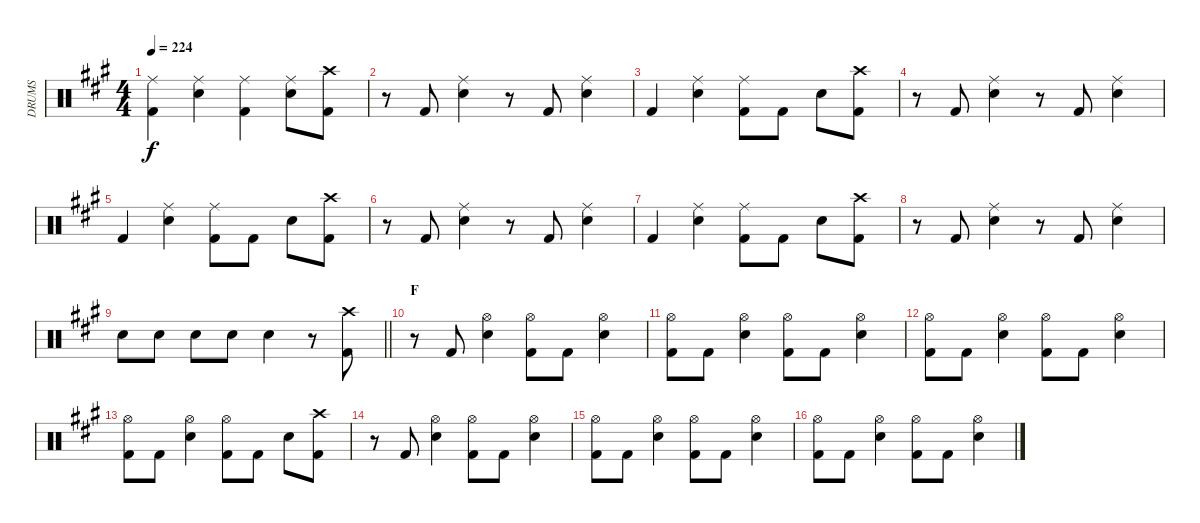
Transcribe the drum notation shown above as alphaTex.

\track ("DRUMS" "DRUMS") {instrument percussion}
\staff {score}
\articulation defaults
\ts (4 4)
\tempo 224
\clef neutral
\ks a
("Ride (middle)" "Kick (hit) 2").4{dy f} ("Ride (middle)" "Snare (hit) 2").4 ("Ride (middle)" "Kick (hit) 2").4 ("Ride (middle)" "Snare (hit) 2").8 ("Crash high (hit)" "Kick (hit) 2").8 |
r.8 "Kick (hit) 2".8 ("Ride (middle)" "Snare (hit) 2").4 r.8 "Kick (hit) 2".8 ("Ride (middle)" "Snare (hit) 2").4 |
"Kick (hit) 2".4 ("Ride (middle)" "Snare (hit) 2").4 ("Ride (middle)" "Kick (hit) 2").8 "Kick (hit) 2".8 "Snare (hit) 2".8 ("Crash high (hit)" "Kick (hit) 2").8 |
r.8 "Kick (hit) 2".8 ("Ride (middle)" "Snare (hit) 2").4 r.8 "Kick (hit) 2".8 ("Ride (middle)" "Snare (hit) 2").4 |
"Kick (hit) 2".4 ("Ride (middle)" "Snare (hit) 2").4 ("Ride (middle)" "Kick (hit) 2").8 "Kick (hit) 2".8 "Snare (hit) 2".8 ("Crash high (hit)" "Kick (hit) 2").8 |
r.8 "Kick (hit) 2".8 ("Ride (middle)" "Snare (hit) 2").4 r.8 "Kick (hit) 2".8 ("Ride (middle)" "Snare (hit) 2").4 |
"Kick (hit) 2".4 ("Ride (middle)" "Snare (hit) 2").4 ("Ride (middle)" "Kick (hit) 2").8 "Kick (hit) 2".8 "Snare (hit) 2".8 ("Crash high (hit)" "Kick (hit) 2").8 |
r.8 "Kick (hit) 2".8 ("Ride (middle)" "Snare (hit) 2").4 r.8 "Kick (hit) 2".8 ("Ride (middle)" "Snare (hit) 2").4 |
\barLineRight lightlight "Snare (hit) 2".8 "Snare (hit) 2".8 "Snare (hit) 2".8 "Snare (hit) 2".8 "Snare (hit) 2".4
r.8 ("Crash high (hit)" "Kick (hit) 2").8{volume 13} |
\section ("" "F  ")
r.8 "Kick (hit) 2".8 ("Hi-Hat (open)" "Snare (hit) 2").4 ("Hi-Hat (open)" "Kick (hit) 2").8 "Kick (hit) 2".8 ("Hi-Hat (open)" "Snare (hit) 2").4 |
("Hi-Hat (open)" "Kick (hit) 2").8 "Kick (hit) 2".8 ("Hi-Hat (open)" "Snare (hit) 2").4 ("Hi-Hat (open)" "Kick (hit) 2").8 "Kick (hit) 2".8 ("Hi-Hat (open)" "Snare (hit) 2").4 |
("Hi-Hat (open)" "Kick (hit) 2").8 "Kick (hit) 2".8 ("Hi-Hat (open)" "Snare (hit) 2").4 ("Hi-Hat (open)" "Kick (hit) 2").8 "Kick (hit) 2".8 ("Hi-Hat (open)" "Snare (hit) 2").4 |
("Hi-Hat (open)" "Kick (hit) 2").8 "Kick (hit) 2".8 ("Hi-Hat (open)" "Snare (hit) 2").4 ("Hi-Hat (open)" "Kick (hit) 2").8 "Kick (hit) 2".8 "Snare (hit) 2".8 ("Crash high (hit)" "Kick (hit) 2").8 |
r.8 "Kick (hit) 2".8 ("Hi-Hat (open)" "Snare (hit) 2").4 ("Hi-Hat (open)" "Kick (hit) 2").8 "Kick (hit) 2".8 ("Hi-Hat (open)" "Snare (hit) 2").4 |
("Hi-Hat (open)" "Kick (hit) 2").8 "Kick (hit) 2".8 ("Hi-Hat (open)" "Snare (hit) 2").4 ("Hi-Hat (open)" "Kick (hit) 2").8 "Kick (hit) 2".8 ("Hi-Hat (open)" "Snare (hit) 2").4 |
("Hi-Hat (open)" "Kick (hit) 2").8 "Kick (hit) 2".8 ("Hi-Hat (open)" "Snare (hit) 2").4 ("Hi-Hat (open)" "Kick (hit) 2").8 "Kick (hit) 2".8 ("Hi-Hat (open)" "Snare (hit) 2").4
